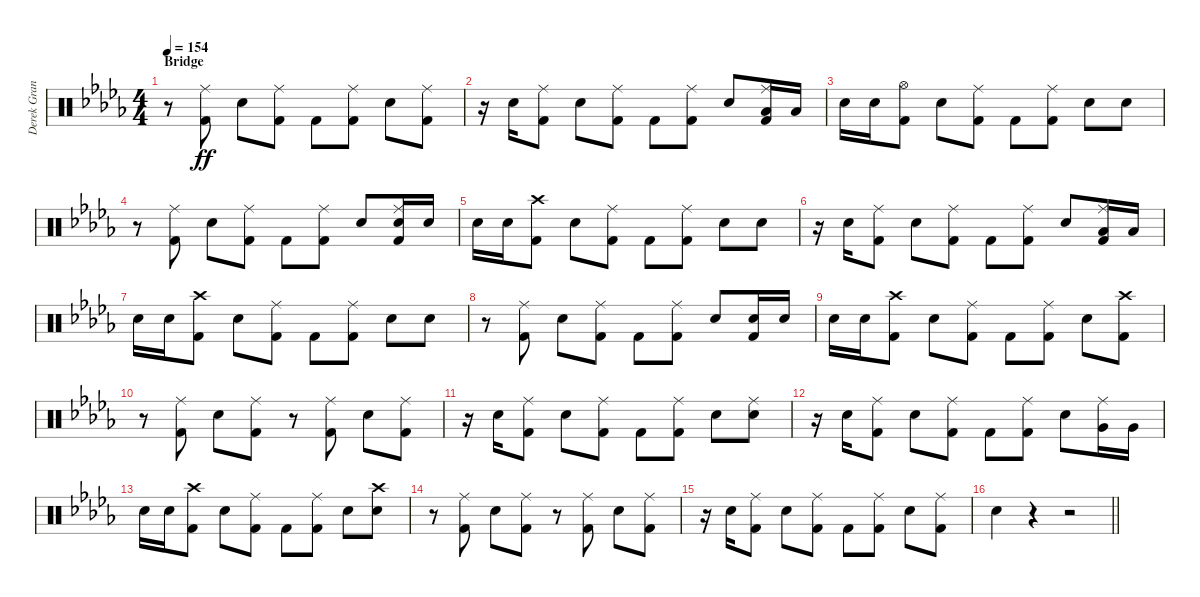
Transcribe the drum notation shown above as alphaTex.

\track ("Derek Grant - Drums" "Derek Gran") {instrument percussion}
\staff {score}
\articulation defaults
\ts (4 4)
\section ("" "Bridge")
\tempo 154
\clef neutral
\ks db
r.8{dy f} ("Kick (hit) 2" "Ride (middle)").8{dy ff} "Snare (hit) 2".8 ("Kick (hit) 2" "Ride (middle)").8 "Kick (hit) 2".8 ("Kick (hit) 2" "Ride (middle)").8 "Snare (hit) 2".8 ("Kick (hit) 2" "Ride (middle)").8 |
r.16 "Snare (hit) 2".16 ("Kick (hit) 2" "Ride (middle)").8 "Snare (hit) 2".8 ("Kick (hit) 2" "Ride (middle)").8 "Kick (hit) 2".8 ("Kick (hit) 2" "Ride (middle)").8 "Snare (hit) 2".8 ("Kick (hit) 2" "Ride (middle)" "Low Tom (hit)").16 "Low Tom (hit)".16 |
"Snare (hit) 2".16 "Snare (hit) 2".16 ("Kick (hit) 2" "Hi-Hat (open)").8 "Snare (hit) 2".8 ("Kick (hit) 2" "Ride (middle)").8 "Kick (hit) 2".8 ("Kick (hit) 2" "Ride (middle)").8 "Snare (hit) 2".8 "Snare (hit) 2".8 |
r.8 ("Kick (hit) 2" "Ride (middle)").8 "Snare (hit) 2".8 ("Kick (hit) 2" "Ride (middle)").8 "Kick (hit) 2".8 ("Kick (hit) 2" "Ride (middle)").8 "Snare (hit) 2".8 ("Kick (hit) 2" "Ride (middle)" "Snare (hit) 2").16 "Snare (hit) 2".16 |
"Snare (hit) 2".16 "Snare (hit) 2".16 ("Crash high (hit)" "Kick (hit) 2").8 "Snare (hit) 2".8 ("Kick (hit) 2" "Ride (middle)").8 "Kick (hit) 2".8 ("Kick (hit) 2" "Ride (middle)").8 "Snare (hit) 2".8 "Snare (hit) 2".8 |
r.16 "Snare (hit) 2".16 ("Kick (hit) 2" "Ride (middle)").8 "Snare (hit) 2".8 ("Kick (hit) 2" "Ride (middle)").8 "Kick (hit) 2".8 ("Kick (hit) 2" "Ride (middle)").8 "Snare (hit) 2".8 ("Kick (hit) 2" "Ride (middle)" "Low Tom (hit)").16 "Low Tom (hit)".16 |
"Snare (hit) 2".16 "Snare (hit) 2".16 ("Kick (hit) 2" "Crash high (hit)").8 "Snare (hit) 2".8 ("Kick (hit) 2" "Ride (middle)").8 "Kick (hit) 2".8 ("Kick (hit) 2" "Ride (middle)").8 "Snare (hit) 2".8 "Snare (hit) 2".8 |
r.8 ("Kick (hit) 2" "Ride (middle)").8 "Snare (hit) 2".8 ("Kick (hit) 2" "Ride (middle)").8 "Kick (hit) 2".8 ("Kick (hit) 2" "Ride (middle)").8 "Snare (hit) 2".8 ("Kick (hit) 2" "Snare (hit) 2").16 "Snare (hit) 2".16 |
"Snare (hit) 2".16 "Snare (hit) 2".16 ("Crash high (hit)" "Kick (hit) 2").8 "Snare (hit) 2".8 ("Kick (hit) 2" "Ride (middle)").8 "Kick (hit) 2".8 ("Kick (hit) 2" "Ride (middle)").8 "Snare (hit) 2".8 ("Crash high (hit)" "Kick (hit) 2").8 |
r.8 ("Ride (middle)" "Kick (hit) 2").8 "Snare (hit) 2".8 ("Ride (middle)" "Kick (hit) 2").8 r.8 ("Ride (middle)" "Kick (hit) 2").8 "Snare (hit) 2".8 ("Ride (middle)" "Kick (hit) 2").8 |
r.16 "Snare (hit) 2".16 ("Ride (middle)" "Kick (hit) 2").8 "Snare (hit) 2".8 ("Ride (middle)" "Kick (hit) 2").8 "Kick (hit) 2".8 ("Ride (middle)" "Kick (hit) 2").8 "Snare (hit) 2".8 ("Ride (middle)" "Snare (hit) 2").8 |
r.16 "Snare (hit) 2".16 ("Ride (middle)" "Kick (hit) 2").8 "Snare (hit) 2".8 ("Ride (middle)" "Kick (hit) 2").8 "Kick (hit) 2".8 ("Ride (middle)" "Kick (hit) 2").8 "Snare (hit) 2".8 ("Ride (middle)" "Very Low Tom (hit)").16 "Very Low Tom (hit)".16 |
"Snare (hit) 2".16 "Snare (hit) 2".16 ("Kick (hit) 2" "Crash high (hit)").8 "Snare (hit) 2".8 ("Kick (hit) 2" "Ride (middle)").8 "Kick (hit) 2".8 ("Kick (hit) 2" "Ride (middle)").8 "Snare (hit) 2".8 ("Snare (hit) 2" "Crash high (hit)").8 |
r.8 ("Ride (middle)" "Kick (hit) 2").8 "Snare (hit) 2".8 ("Ride (middle)" "Kick (hit) 2").8 r.8 ("Ride (middle)" "Kick (hit) 2").8 "Snare (hit) 2".8 ("Ride (middle)" "Kick (hit) 2").8 |
r.16 "Snare (hit) 2".16 ("Ride (middle)" "Kick (hit) 2").8 "Snare (hit) 2".8 ("Ride (middle)" "Kick (hit) 2").8 "Kick (hit) 2".8 ("Ride (middle)" "Kick (hit) 2").8 "Snare (hit) 2".8 ("Ride (middle)" "Kick (hit) 2").8 |
\barLineRight lightlight "Snare (hit) 2".4
r.4 r.2
